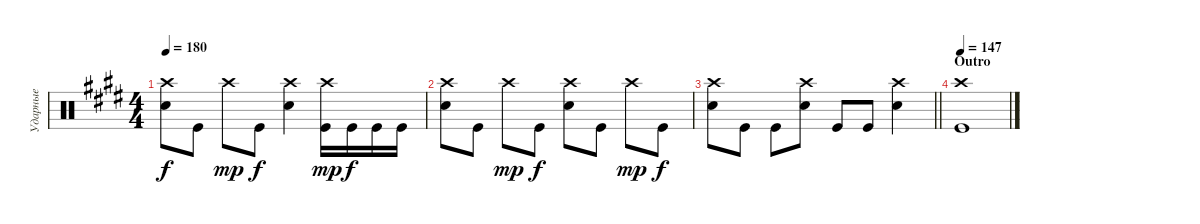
\track ("Ударные" "Ударные") {instrument percussion}
\staff {score}
\articulation defaults
\ts (4 4)
\tempo 180
\clef neutral
\ks c#minor
("Snare (hit) 2" "Crash high (hit)").8{dy f} "Kick (hit)".8 "Crash high (hit)".8{dy mp} "Kick (hit)".8{dy f} ("Snare (hit) 2" "Crash high (hit)").4 ("Crash high (hit)" "Kick (hit)").16{dy mp} "Kick (hit)".16{dy f} "Kick (hit)".16 "Kick (hit)".16 |
("Snare (hit) 2" "Crash high (hit)").8 "Kick (hit)".8 "Crash high (hit)".8{dy mp} "Kick (hit)".8{dy f} ("Snare (hit) 2" "Crash high (hit)").8 "Kick (hit)".8 "Crash high (hit)".8{dy mp} "Kick (hit)".8{dy f} |
\barLineRight lightlight
("Snare (hit) 2" "Crash high (hit)").8 "Kick (hit)".8 "Kick (hit)".8 ("Snare (hit) 2" "Crash high (hit)").8 "Kick (hit)".8 "Kick (hit)".8 ("Snare (hit) 2" "Crash high (hit)").4 |
\section ("" "Outro")
\tempo 147
("Kick (hit)" "Crash high (hit)").1
